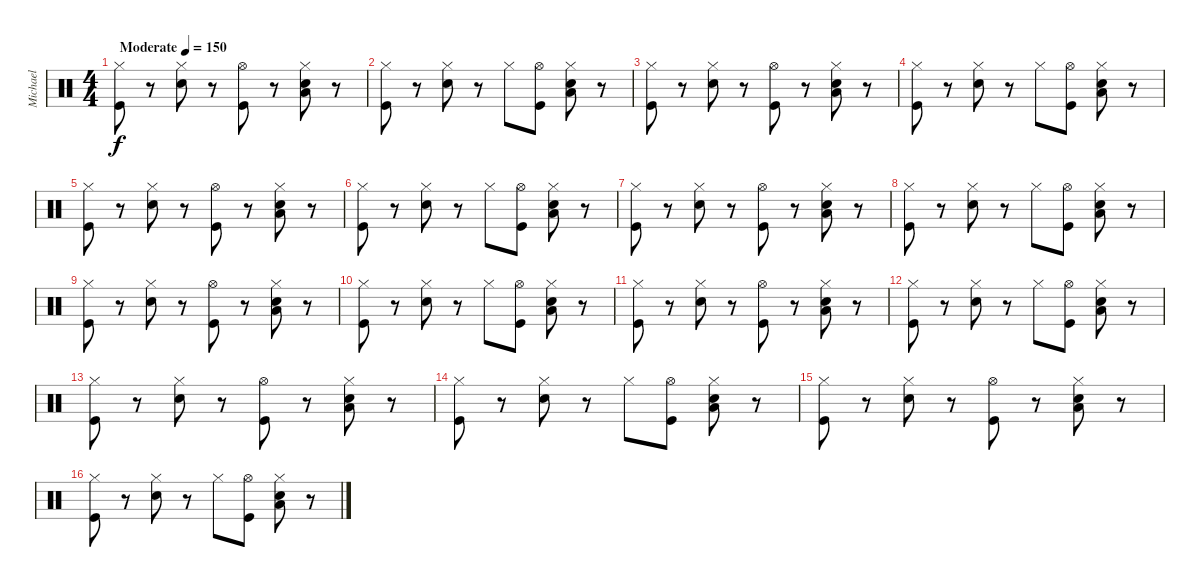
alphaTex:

\track ("Michael" "Michael") {instrument percussion}
\staff {score}
\articulation defaults
\ts (4 4)
\tempo (150 "Moderate")
\clef neutral
\ks c
("Hi-Hat (closed)" "Kick (hit)").8{dy f} r.8 ("Hi-Hat (closed)" "Snare (hit) 2").8 r.8 ("Hi-Hat (open)" "Kick (hit)").8 r.8 ("Hi-Hat (closed)" "Low Floor Tom (hit)" "Snare (hit) 2").8 r.8 |
("Hi-Hat (closed)" "Kick (hit)").8 r.8 ("Hi-Hat (closed)" "Snare (hit) 2").8 r.8 "Hi-Hat (closed)".8 ("Hi-Hat (open)" "Kick (hit)").8 ("Hi-Hat (closed)" "Snare (hit) 2" "Low Floor Tom (hit)").8 r.8 |
("Hi-Hat (closed)" "Kick (hit)").8 r.8 ("Hi-Hat (closed)" "Snare (hit) 2").8 r.8 ("Hi-Hat (open)" "Kick (hit)").8 r.8 ("Hi-Hat (closed)" "Low Floor Tom (hit)" "Snare (hit) 2").8 r.8 |
("Hi-Hat (closed)" "Kick (hit)").8 r.8 ("Hi-Hat (closed)" "Snare (hit) 2").8 r.8 "Hi-Hat (closed)".8 ("Hi-Hat (open)" "Kick (hit)").8 ("Hi-Hat (closed)" "Snare (hit) 2" "Low Floor Tom (hit)").8 r.8 |
("Hi-Hat (closed)" "Kick (hit)").8 r.8 ("Hi-Hat (closed)" "Snare (hit) 2").8 r.8 ("Hi-Hat (open)" "Kick (hit)").8 r.8 ("Hi-Hat (closed)" "Low Floor Tom (hit)" "Snare (hit) 2").8 r.8 |
("Hi-Hat (closed)" "Kick (hit)").8 r.8 ("Hi-Hat (closed)" "Snare (hit) 2").8 r.8 "Hi-Hat (closed)".8 ("Hi-Hat (open)" "Kick (hit)").8 ("Hi-Hat (closed)" "Snare (hit) 2" "Low Floor Tom (hit)").8 r.8 |
("Hi-Hat (closed)" "Kick (hit)").8 r.8 ("Hi-Hat (closed)" "Snare (hit) 2").8 r.8 ("Hi-Hat (open)" "Kick (hit)").8 r.8 ("Hi-Hat (closed)" "Low Floor Tom (hit)" "Snare (hit) 2").8 r.8 |
("Hi-Hat (closed)" "Kick (hit)").8 r.8 ("Hi-Hat (closed)" "Snare (hit) 2").8 r.8 "Hi-Hat (closed)".8 ("Hi-Hat (open)" "Kick (hit)").8 ("Hi-Hat (closed)" "Snare (hit) 2" "Low Floor Tom (hit)").8 r.8 |
("Hi-Hat (closed)" "Kick (hit)").8 r.8 ("Hi-Hat (closed)" "Snare (hit) 2").8 r.8 ("Hi-Hat (open)" "Kick (hit)").8 r.8 ("Hi-Hat (closed)" "Low Floor Tom (hit)" "Snare (hit) 2").8 r.8 |
("Hi-Hat (closed)" "Kick (hit)").8 r.8 ("Hi-Hat (closed)" "Snare (hit) 2").8 r.8 "Hi-Hat (closed)".8 ("Hi-Hat (open)" "Kick (hit)").8 ("Hi-Hat (closed)" "Snare (hit) 2" "Low Floor Tom (hit)").8 r.8 |
("Hi-Hat (closed)" "Kick (hit)").8 r.8 ("Hi-Hat (closed)" "Snare (hit) 2").8 r.8 ("Hi-Hat (open)" "Kick (hit)").8 r.8 ("Hi-Hat (closed)" "Low Floor Tom (hit)" "Snare (hit) 2").8 r.8 |
("Hi-Hat (closed)" "Kick (hit)").8 r.8 ("Hi-Hat (closed)" "Snare (hit) 2").8 r.8 "Hi-Hat (closed)".8 ("Hi-Hat (open)" "Kick (hit)").8 ("Hi-Hat (closed)" "Snare (hit) 2" "Low Floor Tom (hit)").8 r.8 |
("Hi-Hat (closed)" "Kick (hit)").8 r.8 ("Hi-Hat (closed)" "Snare (hit) 2").8 r.8 ("Hi-Hat (open)" "Kick (hit)").8 r.8 ("Hi-Hat (closed)" "Low Floor Tom (hit)" "Snare (hit) 2").8 r.8 |
("Hi-Hat (closed)" "Kick (hit)").8 r.8 ("Hi-Hat (closed)" "Snare (hit) 2").8 r.8 "Hi-Hat (closed)".8 ("Hi-Hat (open)" "Kick (hit)").8 ("Hi-Hat (closed)" "Snare (hit) 2" "Low Floor Tom (hit)").8 r.8 |
("Hi-Hat (closed)" "Kick (hit)").8 r.8 ("Hi-Hat (closed)" "Snare (hit) 2").8 r.8 ("Hi-Hat (open)" "Kick (hit)").8 r.8 ("Hi-Hat (closed)" "Low Floor Tom (hit)" "Snare (hit) 2").8 r.8 |
("Hi-Hat (closed)" "Kick (hit)").8 r.8 ("Hi-Hat (closed)" "Snare (hit) 2").8 r.8 "Hi-Hat (closed)".8 ("Hi-Hat (open)" "Kick (hit)").8 ("Hi-Hat (closed)" "Snare (hit) 2" "Low Floor Tom (hit)").8 r.8
